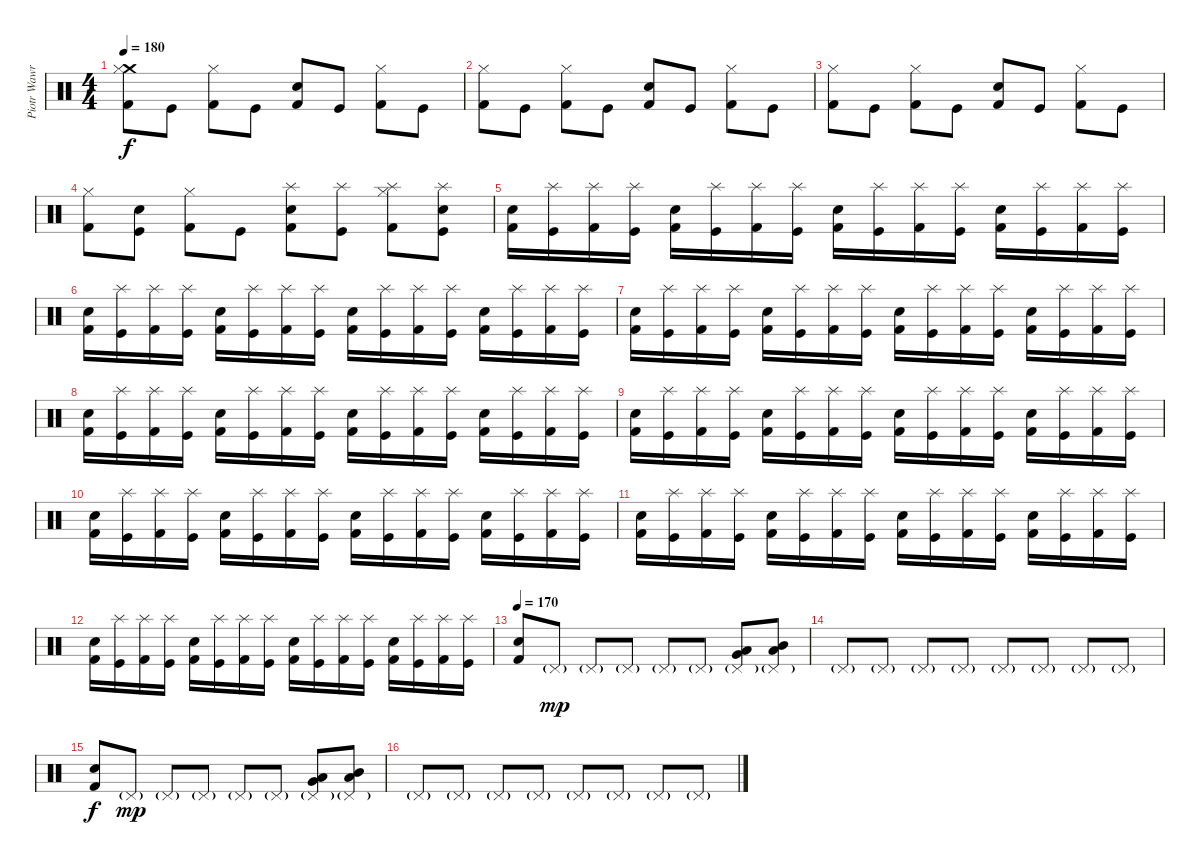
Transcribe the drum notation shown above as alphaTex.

\track ("Piotr Wawrzeniuk" "Piotr Wawr") {instrument percussion}
\staff {score}
\articulation defaults
\ts (4 4)
\tempo 180
\clef neutral
\ks c
("Crash medium (hit)" "Hi-Hat (closed)" "Kick (hit) 2").8{dy f} "Kick (hit)".8 ("Hi-Hat (closed)" "Kick (hit) 2").8 "Kick (hit)".8 ("Snare (hit) 2" "Kick (hit) 2").8 "Kick (hit)".8 ("Hi-Hat (closed)" "Kick (hit) 2").8 "Kick (hit)".8 |
("Hi-Hat (closed)" "Kick (hit) 2").8 "Kick (hit)".8 ("Hi-Hat (closed)" "Kick (hit) 2").8 "Kick (hit)".8 ("Snare (hit) 2" "Kick (hit) 2").8 "Kick (hit)".8 ("Hi-Hat (closed)" "Kick (hit) 2").8 "Kick (hit)".8 |
("Hi-Hat (closed)" "Kick (hit) 2").8 "Kick (hit)".8 ("Hi-Hat (closed)" "Kick (hit) 2").8 "Kick (hit)".8 ("Snare (hit) 2" "Kick (hit) 2").8 "Kick (hit)".8 ("Hi-Hat (closed)" "Kick (hit) 2").8 "Kick (hit)".8 |
("Hi-Hat (closed)" "Kick (hit) 2").8 ("Snare (hit) 2" "Kick (hit)").8 ("Hi-Hat (closed)" "Kick (hit) 2").8 "Kick (hit)".8 ("Splash (hit)" "Snare (hit) 2" "Kick (hit) 2").8 ("Splash (hit)" "Kick (hit)").8 ("Splash (hit)" "Hi-Hat (closed)" "Kick (hit) 2").8 ("Splash (hit)" "Snare (hit) 2" "Kick (hit)").8 |
("Snare (hit) 2" "Kick (hit) 2").16 ("Splash (hit)" "Kick (hit)").16 ("Splash (hit)" "Kick (hit) 2").16 ("Splash (hit)" "Kick (hit)").16 ("Snare (hit) 2" "Kick (hit) 2").16 ("Splash (hit)" "Kick (hit)").16 ("Splash (hit)" "Kick (hit) 2").16 ("Splash (hit)" "Kick (hit)").16 ("Snare (hit) 2" "Kick (hit) 2").16 ("Splash (hit)" "Kick (hit)").16 ("Splash (hit)" "Kick (hit) 2").16 ("Splash (hit)" "Kick (hit)").16 ("Snare (hit) 2" "Kick (hit) 2").16 ("Splash (hit)" "Kick (hit)").16 ("Splash (hit)" "Kick (hit) 2").16 ("Splash (hit)" "Kick (hit)").16 |
("Snare (hit) 2" "Kick (hit) 2").16 ("Splash (hit)" "Kick (hit)").16 ("Splash (hit)" "Kick (hit) 2").16 ("Splash (hit)" "Kick (hit)").16 ("Snare (hit) 2" "Kick (hit) 2").16 ("Splash (hit)" "Kick (hit)").16 ("Splash (hit)" "Kick (hit) 2").16 ("Splash (hit)" "Kick (hit)").16 ("Snare (hit) 2" "Kick (hit) 2").16 ("Splash (hit)" "Kick (hit)").16 ("Splash (hit)" "Kick (hit) 2").16 ("Splash (hit)" "Kick (hit)").16 ("Snare (hit) 2" "Kick (hit) 2").16 ("Splash (hit)" "Kick (hit)").16 ("Splash (hit)" "Kick (hit) 2").16 ("Splash (hit)" "Kick (hit)").16 |
("Snare (hit) 2" "Kick (hit) 2").16 ("Splash (hit)" "Kick (hit)").16 ("Splash (hit)" "Kick (hit) 2").16 ("Splash (hit)" "Kick (hit)").16 ("Snare (hit) 2" "Kick (hit) 2").16 ("Splash (hit)" "Kick (hit)").16 ("Splash (hit)" "Kick (hit) 2").16 ("Splash (hit)" "Kick (hit)").16 ("Snare (hit) 2" "Kick (hit) 2").16 ("Splash (hit)" "Kick (hit)").16 ("Splash (hit)" "Kick (hit) 2").16 ("Splash (hit)" "Kick (hit)").16 ("Snare (hit) 2" "Kick (hit) 2").16 ("Splash (hit)" "Kick (hit)").16 ("Splash (hit)" "Kick (hit) 2").16 ("Splash (hit)" "Kick (hit)").16 |
("Snare (hit) 2" "Kick (hit) 2").16 ("Splash (hit)" "Kick (hit)").16 ("Splash (hit)" "Kick (hit) 2").16 ("Splash (hit)" "Kick (hit)").16 ("Snare (hit) 2" "Kick (hit) 2").16 ("Splash (hit)" "Kick (hit)").16 ("Splash (hit)" "Kick (hit) 2").16 ("Splash (hit)" "Kick (hit)").16 ("Snare (hit) 2" "Kick (hit) 2").16 ("Splash (hit)" "Kick (hit)").16 ("Splash (hit)" "Kick (hit) 2").16 ("Splash (hit)" "Kick (hit)").16 ("Snare (hit) 2" "Kick (hit) 2").16 ("Splash (hit)" "Kick (hit)").16 ("Splash (hit)" "Kick (hit) 2").16 ("Splash (hit)" "Kick (hit)").16 |
("Snare (hit) 2" "Kick (hit) 2").16 ("Splash (hit)" "Kick (hit)").16 ("Splash (hit)" "Kick (hit) 2").16 ("Splash (hit)" "Kick (hit)").16 ("Snare (hit) 2" "Kick (hit) 2").16 ("Splash (hit)" "Kick (hit)").16 ("Splash (hit)" "Kick (hit) 2").16 ("Splash (hit)" "Kick (hit)").16 ("Snare (hit) 2" "Kick (hit) 2").16 ("Splash (hit)" "Kick (hit)").16 ("Splash (hit)" "Kick (hit) 2").16 ("Splash (hit)" "Kick (hit)").16 ("Snare (hit) 2" "Kick (hit) 2").16 ("Splash (hit)" "Kick (hit)").16 ("Splash (hit)" "Kick (hit) 2").16 ("Splash (hit)" "Kick (hit)").16 |
("Snare (hit) 2" "Kick (hit) 2").16 ("Splash (hit)" "Kick (hit)").16 ("Splash (hit)" "Kick (hit) 2").16 ("Splash (hit)" "Kick (hit)").16 ("Snare (hit) 2" "Kick (hit) 2").16 ("Splash (hit)" "Kick (hit)").16 ("Splash (hit)" "Kick (hit) 2").16 ("Splash (hit)" "Kick (hit)").16 ("Snare (hit) 2" "Kick (hit) 2").16 ("Splash (hit)" "Kick (hit)").16 ("Splash (hit)" "Kick (hit) 2").16 ("Splash (hit)" "Kick (hit)").16 ("Snare (hit) 2" "Kick (hit) 2").16 ("Splash (hit)" "Kick (hit)").16 ("Splash (hit)" "Kick (hit) 2").16 ("Splash (hit)" "Kick (hit)").16 |
("Snare (hit) 2" "Kick (hit) 2").16 ("Splash (hit)" "Kick (hit)").16 ("Splash (hit)" "Kick (hit) 2").16 ("Splash (hit)" "Kick (hit)").16 ("Snare (hit) 2" "Kick (hit) 2").16 ("Splash (hit)" "Kick (hit)").16 ("Splash (hit)" "Kick (hit) 2").16 ("Splash (hit)" "Kick (hit)").16 ("Snare (hit) 2" "Kick (hit) 2").16 ("Splash (hit)" "Kick (hit)").16 ("Splash (hit)" "Kick (hit) 2").16 ("Splash (hit)" "Kick (hit)").16 ("Snare (hit) 2" "Kick (hit) 2").16 ("Splash (hit)" "Kick (hit)").16 ("Splash (hit)" "Kick (hit) 2").16 ("Splash (hit)" "Kick (hit)").16 |
("Snare (hit) 2" "Kick (hit) 2").16 ("Splash (hit)" "Kick (hit)").16 ("Splash (hit)" "Kick (hit) 2").16 ("Splash (hit)" "Kick (hit)").16 ("Snare (hit) 2" "Kick (hit) 2").16 ("Splash (hit)" "Kick (hit)").16 ("Splash (hit)" "Kick (hit) 2").16 ("Splash (hit)" "Kick (hit)").16 ("Snare (hit) 2" "Kick (hit) 2").16 ("Splash (hit)" "Kick (hit)").16 ("Splash (hit)" "Kick (hit) 2").16 ("Splash (hit)" "Kick (hit)").16 ("Snare (hit) 2" "Kick (hit) 2").16 ("Splash (hit)" "Kick (hit)").16 ("Splash (hit)" "Kick (hit) 2").16 ("Splash (hit)" "Kick (hit)").16 |
\tempo 170
("Snare (hit) 2" "Kick (hit) 2").8 "Pedal Hi-Hat (hit)"{g}.8{dy mp} "Pedal Hi-Hat (hit)"{g}.8 "Pedal Hi-Hat (hit)"{g}.8 "Pedal Hi-Hat (hit)"{g}.8 "Pedal Hi-Hat (hit)"{g}.8 ("Pedal Hi-Hat (hit)"{g} "Very Low Tom (hit)" "Low Floor Tom (hit)").8 ("Pedal Hi-Hat (hit)"{g} "Mid Tom (hit)" "Low Tom (hit)").8 |
"Pedal Hi-Hat (hit)"{g}.8 "Pedal Hi-Hat (hit)"{g}.8 "Pedal Hi-Hat (hit)"{g}.8 "Pedal Hi-Hat (hit)"{g}.8 "Pedal Hi-Hat (hit)"{g}.8 "Pedal Hi-Hat (hit)"{g}.8 "Pedal Hi-Hat (hit)"{g}.8 "Pedal Hi-Hat (hit)"{g}.8 |
("Snare (hit) 2" "Kick (hit) 2").8{dy f} "Pedal Hi-Hat (hit)"{g}.8{dy mp} "Pedal Hi-Hat (hit)"{g}.8 "Pedal Hi-Hat (hit)"{g}.8 "Pedal Hi-Hat (hit)"{g}.8 "Pedal Hi-Hat (hit)"{g}.8 ("Pedal Hi-Hat (hit)"{g} "Very Low Tom (hit)" "Low Floor Tom (hit)").8 ("Pedal Hi-Hat (hit)"{g} "Mid Tom (hit)" "Low Tom (hit)").8 |
"Pedal Hi-Hat (hit)"{g}.8 "Pedal Hi-Hat (hit)"{g}.8 "Pedal Hi-Hat (hit)"{g}.8 "Pedal Hi-Hat (hit)"{g}.8 "Pedal Hi-Hat (hit)"{g}.8 "Pedal Hi-Hat (hit)"{g}.8 "Pedal Hi-Hat (hit)"{g}.8 "Pedal Hi-Hat (hit)"{g}.8
